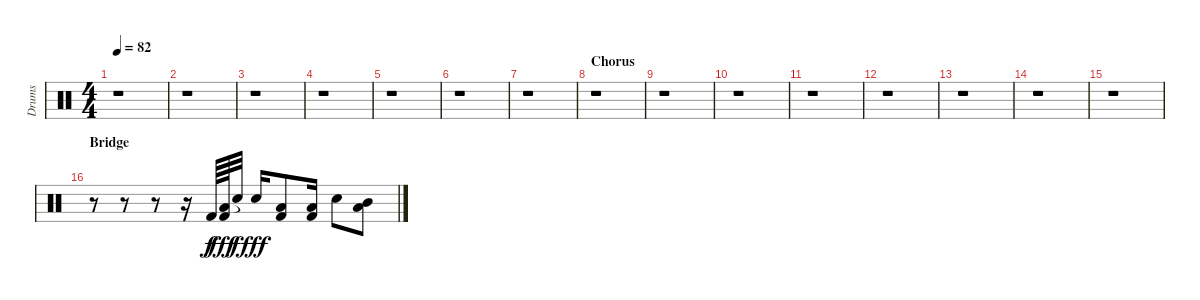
\track ("Drums" "Drums") {instrument percussion}
\staff {score}
\articulation defaults
\ts (4 4)
\tempo 82
\clef neutral
\ks c
r.1{dy f} |
r.1 |
r.1 |
r.1 |
r.1 |
r.1 |
r.1 |
\section ("" "Chorus")
r.1 |
r.1 |
r.1 |
r.1 |
r.1 |
r.1 |
r.1 |
r.1 |
\section ("" "Bridge")
r.8 r.8 r.8 r.16 "Kick (hit) 2".64 ("Low Tom (hit)" "Kick (hit) 2").64{dy fff} "Snare (hit)"{t}.32{dy f} "Electric Snare (hit)".16{dy fff} ("Low Tom (hit)" "Kick (hit) 2").8 ("Low Tom (hit)" "Kick (hit) 2").16 "Electric Snare (hit)".8 ("Mid Tom (hit)" "Low Floor Tom (hit)").8
